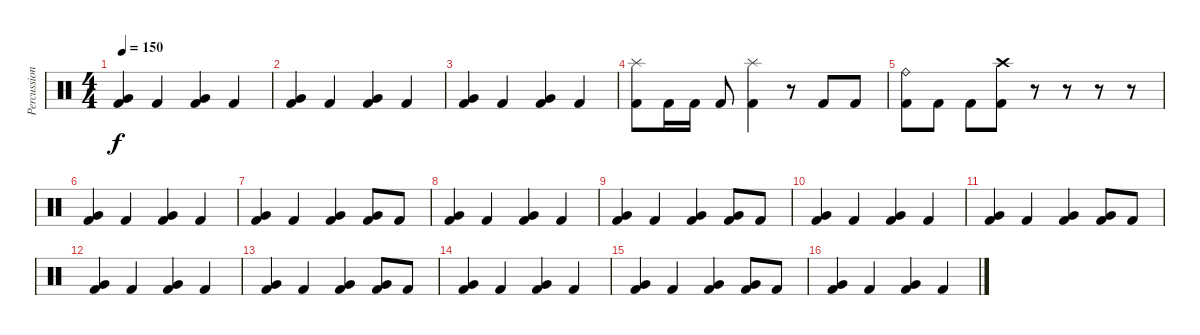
\track ("Percussion" "Percussion") {instrument percussion}
\staff {score}
\articulation defaults
\ts (4 4)
\tempo 150
\clef neutral
\ks c
("Very Low Tom (hit)" "Kick (hit) 2").4{dy f} "Kick (hit) 2".4 ("Very Low Tom (hit)" "Kick (hit) 2").4 "Kick (hit) 2".4 |
("Very Low Tom (hit)" "Kick (hit) 2").4 "Kick (hit) 2".4 ("Very Low Tom (hit)" "Kick (hit) 2").4 "Kick (hit) 2".4 |
("Very Low Tom (hit)" "Kick (hit) 2").4 "Kick (hit) 2".4 ("Very Low Tom (hit)" "Kick (hit) 2").4 "Kick (hit) 2".4 |
("Splash (hit)" "Kick (hit) 2").8 "Kick (hit) 2".16 "Kick (hit) 2".16 "Kick (hit) 2".8 ("Splash (hit)" "Kick (hit) 2").4 r.8 "Kick (hit) 2".8 "Kick (hit) 2".8 |
("Ride (bell)" "Kick (hit) 2").8 "Kick (hit) 2".8 "Kick (hit) 2".8 ("Crash high (hit)" "Kick (hit) 2").8 r.8 r.8 r.8 r.8 |
("Very Low Tom (hit)" "Kick (hit) 2").4 "Kick (hit) 2".4 ("Very Low Tom (hit)" "Kick (hit) 2").4 "Kick (hit) 2".4 |
("Very Low Tom (hit)" "Kick (hit) 2").4 "Kick (hit) 2".4 ("Very Low Tom (hit)" "Kick (hit) 2").4 ("Very Low Tom (hit)" "Kick (hit) 2").8 "Kick (hit) 2".8 |
("Very Low Tom (hit)" "Kick (hit) 2").4 "Kick (hit) 2".4 ("Very Low Tom (hit)" "Kick (hit) 2").4 "Kick (hit) 2".4 |
("Very Low Tom (hit)" "Kick (hit) 2").4 "Kick (hit) 2".4 ("Very Low Tom (hit)" "Kick (hit) 2").4 ("Very Low Tom (hit)" "Kick (hit) 2").8 "Kick (hit) 2".8 |
("Very Low Tom (hit)" "Kick (hit) 2").4 "Kick (hit) 2".4 ("Very Low Tom (hit)" "Kick (hit) 2").4 "Kick (hit) 2".4 |
("Very Low Tom (hit)" "Kick (hit) 2").4 "Kick (hit) 2".4 ("Very Low Tom (hit)" "Kick (hit) 2").4 ("Very Low Tom (hit)" "Kick (hit) 2").8 "Kick (hit) 2".8 |
("Very Low Tom (hit)" "Kick (hit) 2").4 "Kick (hit) 2".4 ("Very Low Tom (hit)" "Kick (hit) 2").4 "Kick (hit) 2".4 |
("Very Low Tom (hit)" "Kick (hit) 2").4 "Kick (hit) 2".4 ("Very Low Tom (hit)" "Kick (hit) 2").4 ("Very Low Tom (hit)" "Kick (hit) 2").8 "Kick (hit) 2".8 |
("Very Low Tom (hit)" "Kick (hit) 2").4 "Kick (hit) 2".4 ("Very Low Tom (hit)" "Kick (hit) 2").4 "Kick (hit) 2".4 |
("Very Low Tom (hit)" "Kick (hit) 2").4 "Kick (hit) 2".4 ("Very Low Tom (hit)" "Kick (hit) 2").4 ("Very Low Tom (hit)" "Kick (hit) 2").8 "Kick (hit) 2".8 |
("Very Low Tom (hit)" "Kick (hit) 2").4 "Kick (hit) 2".4 ("Very Low Tom (hit)" "Kick (hit) 2").4 "Kick (hit) 2".4
